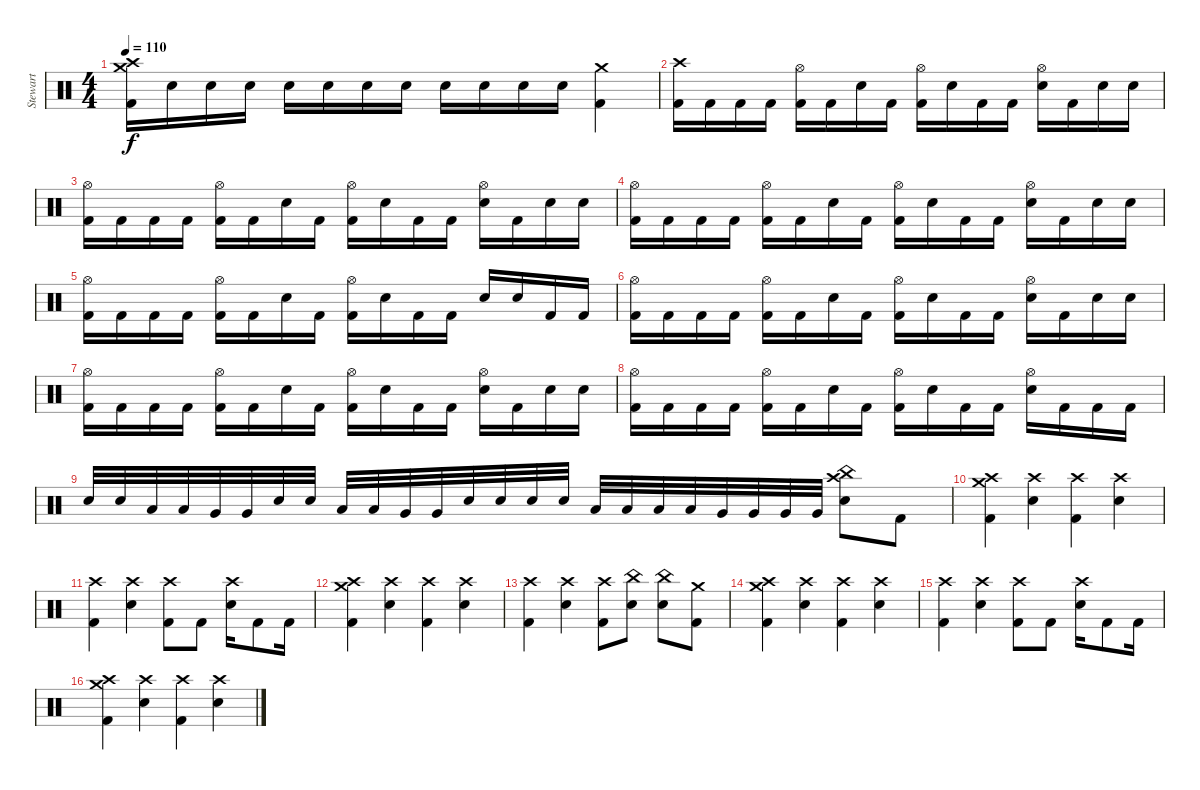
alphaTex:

\track ("Stewart" "Stewart") {instrument percussion}
\staff {score}
\articulation defaults
\ts (4 4)
\tempo 110
\clef neutral
\ks c
("Crash high (hit)" "Crash medium (hit)" "Kick (hit) 2").16{dy f} "Electric Snare (hit)".16 "Electric Snare (hit)".16 "Electric Snare (hit)".16 "Electric Snare (hit)".16 "Electric Snare (hit)".16 "Electric Snare (hit)".16 "Electric Snare (hit)".16 "Electric Snare (hit)".16 "Electric Snare (hit)".16 "Electric Snare (hit)".16 "Electric Snare (hit)".16 ("Crash medium (hit)" "Kick (hit) 2").4 |
("Crash high (hit)" "Kick (hit) 2").16 "Kick (hit) 2".16 "Kick (hit) 2".16 "Kick (hit) 2".16 ("Hi-Hat (open)" "Kick (hit) 2").16 "Kick (hit) 2".16 "Electric Snare (hit)".16 "Kick (hit) 2".16 ("Hi-Hat (open)" "Kick (hit) 2").16 "Electric Snare (hit)".16 "Kick (hit) 2".16 "Kick (hit) 2".16 ("Hi-Hat (open)" "Electric Snare (hit)").16 "Kick (hit) 2".16 "Electric Snare (hit)".16 "Electric Snare (hit)".16 |
("Hi-Hat (open)" "Kick (hit) 2").16 "Kick (hit) 2".16 "Kick (hit) 2".16 "Kick (hit) 2".16 ("Hi-Hat (open)" "Kick (hit) 2").16 "Kick (hit) 2".16 "Electric Snare (hit)".16 "Kick (hit) 2".16 ("Hi-Hat (open)" "Kick (hit) 2").16 "Electric Snare (hit)".16 "Kick (hit) 2".16 "Kick (hit) 2".16 ("Hi-Hat (open)" "Electric Snare (hit)").16 "Kick (hit) 2".16 "Electric Snare (hit)".16 "Electric Snare (hit)".16 |
("Hi-Hat (open)" "Kick (hit) 2").16 "Kick (hit) 2".16 "Kick (hit) 2".16 "Kick (hit) 2".16 ("Hi-Hat (open)" "Kick (hit) 2").16 "Kick (hit) 2".16 "Electric Snare (hit)".16 "Kick (hit) 2".16 ("Hi-Hat (open)" "Kick (hit) 2").16 "Electric Snare (hit)".16 "Kick (hit) 2".16 "Kick (hit) 2".16 ("Hi-Hat (open)" "Electric Snare (hit)").16 "Kick (hit) 2".16 "Electric Snare (hit)".16 "Electric Snare (hit)".16 |
("Hi-Hat (open)" "Kick (hit) 2").16 "Kick (hit) 2".16 "Kick (hit) 2".16 "Kick (hit) 2".16 ("Hi-Hat (open)" "Kick (hit) 2").16 "Kick (hit) 2".16 "Electric Snare (hit)".16 "Kick (hit) 2".16 ("Hi-Hat (open)" "Kick (hit) 2").16 "Electric Snare (hit)".16 "Kick (hit) 2".16 "Kick (hit) 2".16 "Electric Snare (hit)".16 "Electric Snare (hit)".16 "Kick (hit) 2".16 "Kick (hit) 2".16 |
("Hi-Hat (open)" "Kick (hit) 2").16 "Kick (hit) 2".16 "Kick (hit) 2".16 "Kick (hit) 2".16 ("Hi-Hat (open)" "Kick (hit) 2").16 "Kick (hit) 2".16 "Electric Snare (hit)".16 "Kick (hit) 2".16 ("Hi-Hat (open)" "Kick (hit) 2").16 "Electric Snare (hit)".16 "Kick (hit) 2".16 "Kick (hit) 2".16 ("Hi-Hat (open)" "Electric Snare (hit)").16 "Kick (hit) 2".16 "Electric Snare (hit)".16 "Electric Snare (hit)".16 |
("Hi-Hat (open)" "Kick (hit) 2").16 "Kick (hit) 2".16 "Kick (hit) 2".16 "Kick (hit) 2".16 ("Hi-Hat (open)" "Kick (hit) 2").16 "Kick (hit) 2".16 "Electric Snare (hit)".16 "Kick (hit) 2".16 ("Hi-Hat (open)" "Kick (hit) 2").16 "Electric Snare (hit)".16 "Kick (hit) 2".16 "Kick (hit) 2".16 ("Hi-Hat (open)" "Electric Snare (hit)").16 "Kick (hit) 2".16 "Electric Snare (hit)".16 "Electric Snare (hit)".16 |
("Hi-Hat (open)" "Kick (hit) 2").16 "Kick (hit) 2".16 "Kick (hit) 2".16 "Kick (hit) 2".16 ("Hi-Hat (open)" "Kick (hit) 2").16 "Kick (hit) 2".16 "Electric Snare (hit)".16 "Kick (hit) 2".16 ("Hi-Hat (open)" "Kick (hit) 2").16 "Electric Snare (hit)".16 "Kick (hit) 2".16 "Kick (hit) 2".16 ("Hi-Hat (open)" "Electric Snare (hit)").16 "Kick (hit) 2".16 "Kick (hit) 2".16 "Kick (hit) 2".16 |
"Electric Snare (hit)".32 "Electric Snare (hit)".32 "Low Tom (hit)".32 "Low Tom (hit)".32 "Very Low Tom (hit)".32 "Very Low Tom (hit)".32 "Electric Snare (hit)".32 "Electric Snare (hit)".32 "Low Tom (hit)".32 "Low Tom (hit)".32 "Very Low Tom (hit)".32 "Very Low Tom (hit)".32 "Electric Snare (hit)".32 "Electric Snare (hit)".32 "Electric Snare (hit)".32 "Electric Snare (hit)".32 "Low Tom (hit)".32 "Low Tom (hit)".32 "Low Tom (hit)".32 "Low Tom (hit)".32 "Very Low Tom (hit)".32 "Very Low Tom (hit)".32 "Very Low Tom (hit)".32 "Very Low Tom (hit)".32 ("China (hit)" "Crash high (hit)" "Electric Snare (hit)").8 "Kick (hit) 2".8 |
("Crash high (hit)" "Crash medium (hit)" "Kick (hit) 2").4 ("Crash high (hit)" "Electric Snare (hit)").4 ("Crash high (hit)" "Kick (hit) 2").4 ("Crash high (hit)" "Electric Snare (hit)").4 |
("Crash high (hit)" "Kick (hit) 2").4 ("Crash high (hit)" "Electric Snare (hit)").4 ("Crash high (hit)" "Kick (hit) 2").8 "Kick (hit) 2".8 ("Crash high (hit)" "Electric Snare (hit)").16 "Kick (hit) 2".8 "Kick (hit) 2".16 |
("Crash high (hit)" "Crash medium (hit)" "Kick (hit) 2").4 ("Crash high (hit)" "Electric Snare (hit)").4 ("Crash high (hit)" "Kick (hit) 2").4 ("Crash high (hit)" "Electric Snare (hit)").4 |
("Crash high (hit)" "Kick (hit) 2").4 ("Crash high (hit)" "Electric Snare (hit)").4 ("Crash high (hit)" "Kick (hit) 2").8 ("China (hit)" "Electric Snare (hit)").8 ("China (hit)" "Electric Snare (hit)").8 ("Crash medium (hit)" "Kick (hit) 2").8 |
("Crash high (hit)" "Crash medium (hit)" "Kick (hit) 2").4 ("Crash high (hit)" "Electric Snare (hit)").4 ("Crash high (hit)" "Kick (hit) 2").4 ("Crash high (hit)" "Electric Snare (hit)").4 |
("Crash high (hit)" "Kick (hit) 2").4 ("Crash high (hit)" "Electric Snare (hit)").4 ("Crash high (hit)" "Kick (hit) 2").8 "Kick (hit) 2".8 ("Crash high (hit)" "Electric Snare (hit)").16 "Kick (hit) 2".8 "Kick (hit) 2".16 |
("Crash high (hit)" "Crash medium (hit)" "Kick (hit) 2").4 ("Crash high (hit)" "Electric Snare (hit)").4 ("Crash high (hit)" "Kick (hit) 2").4 ("Crash high (hit)" "Electric Snare (hit)").4
